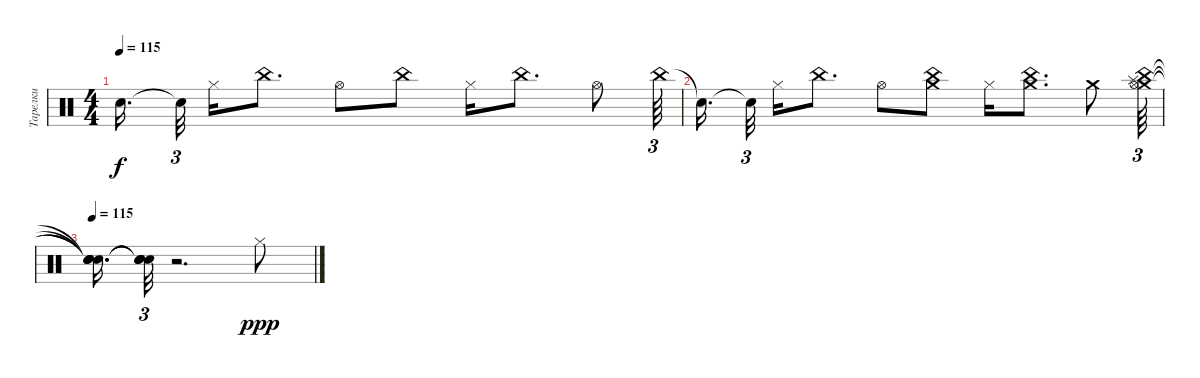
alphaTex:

\track ("Тарелки" "Тарелки") {instrument percussion}
\staff {score}
\articulation defaults
\ts (4 4)
\tempo 115
\clef neutral
\ks c "Snare (hit)"{t}.16{d dy f beam splitsecondary} "Snare (hit)"{t}.32{tu (3 2) beam splitsecondary} "Hi-Hat (closed)".16 "China (hit)".8{d} "Hi-Hat (open)".8 "China (hit)".8 "Hi-Hat (closed)".16 "China (hit)".8{d} "Hi-Hat (open)".8 "China (hit)".64{tu (3 2)}
|
"Snare (hit)"{t}.16{d beam splitsecondary} "Snare (hit)"{t}.32{tu (3 2) beam splitsecondary} "Hi-Hat (closed)".16 "China (hit)".8{d} "Hi-Hat (open)".8 ("China (hit)" "Crash medium (hit)").8 "Hi-Hat (closed)".16 ("China (hit)" "Crash medium (hit)").8{d} "Crash medium (hit)".8 ("Crash medium (hit)" "Splash (hit)" "Hi-Hat (open)" "China (hit)").64{tu (3 2)} |
\tempo 115
("Snare (hit)"{t} "Snare (hit)"{t} "Snare (hit)"{t} "Snare (hit)"{t}).16{d} ("Snare (hit)"{t} "Snare (hit)"{t} "Snare (hit)"{t} "Snare (hit)"{t}).32{tu (3 2)} r.2{d} "Hi-Hat (closed)".8{dy ppp}
